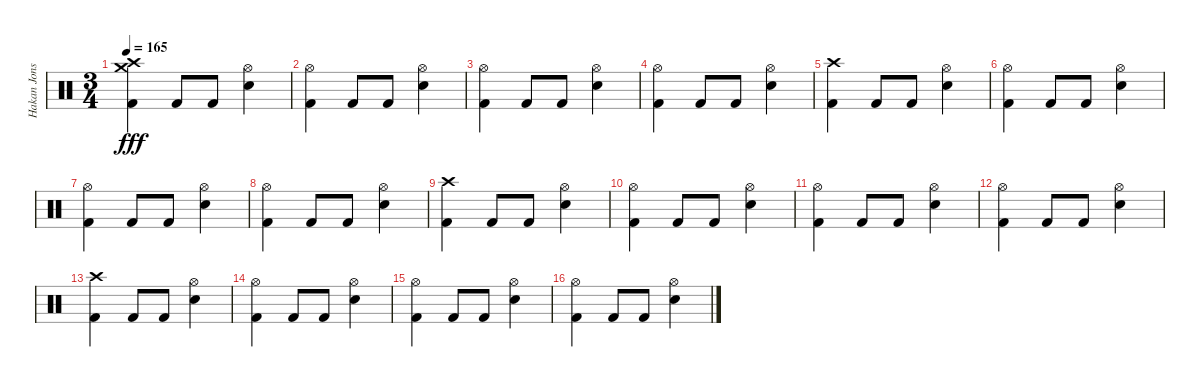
\track ("Hakan Jonsson" "Hakan Jons") {instrument percussion}
\staff {score}
\articulation defaults
\ts (3 4)
\tempo 165
\clef neutral
\ks c
("Crash high (hit)" "Crash medium (hit)" "Kick (hit) 2").4{dy fff} "Kick (hit) 2".8 "Kick (hit) 2".8 ("Hi-Hat (open)" "Electric Snare (hit)").4 |
("Hi-Hat (open)" "Kick (hit) 2").4 "Kick (hit) 2".8 "Kick (hit) 2".8 ("Hi-Hat (open)" "Electric Snare (hit)").4 |
("Hi-Hat (open)" "Kick (hit) 2").4 "Kick (hit) 2".8 "Kick (hit) 2".8 ("Hi-Hat (open)" "Electric Snare (hit)").4 |
("Hi-Hat (open)" "Kick (hit) 2").4 "Kick (hit) 2".8 "Kick (hit) 2".8 ("Hi-Hat (open)" "Electric Snare (hit)").4 |
("Crash high (hit)" "Kick (hit) 2").4 "Kick (hit) 2".8 "Kick (hit) 2".8 ("Hi-Hat (open)" "Electric Snare (hit)").4 |
("Hi-Hat (open)" "Kick (hit) 2").4 "Kick (hit) 2".8 "Kick (hit) 2".8 ("Hi-Hat (open)" "Electric Snare (hit)").4 |
("Hi-Hat (open)" "Kick (hit) 2").4 "Kick (hit) 2".8 "Kick (hit) 2".8 ("Hi-Hat (open)" "Electric Snare (hit)").4 |
("Hi-Hat (open)" "Kick (hit) 2").4 "Kick (hit) 2".8 "Kick (hit) 2".8 ("Hi-Hat (open)" "Electric Snare (hit)").4 |
("Crash high (hit)" "Kick (hit) 2").4 "Kick (hit) 2".8 "Kick (hit) 2".8 ("Hi-Hat (open)" "Electric Snare (hit)").4 |
("Hi-Hat (open)" "Kick (hit) 2").4 "Kick (hit) 2".8 "Kick (hit) 2".8 ("Hi-Hat (open)" "Electric Snare (hit)").4 |
("Hi-Hat (open)" "Kick (hit) 2").4 "Kick (hit) 2".8 "Kick (hit) 2".8 ("Hi-Hat (open)" "Electric Snare (hit)").4 |
("Hi-Hat (open)" "Kick (hit) 2").4 "Kick (hit) 2".8 "Kick (hit) 2".8 ("Hi-Hat (open)" "Electric Snare (hit)").4 |
("Crash high (hit)" "Kick (hit) 2").4 "Kick (hit) 2".8 "Kick (hit) 2".8 ("Hi-Hat (open)" "Electric Snare (hit)").4 |
("Hi-Hat (open)" "Kick (hit) 2").4 "Kick (hit) 2".8 "Kick (hit) 2".8 ("Hi-Hat (open)" "Electric Snare (hit)").4 |
("Hi-Hat (open)" "Kick (hit) 2").4 "Kick (hit) 2".8 "Kick (hit) 2".8 ("Hi-Hat (open)" "Electric Snare (hit)").4 |
("Hi-Hat (open)" "Kick (hit) 2").4 "Kick (hit) 2".8 "Kick (hit) 2".8 ("Hi-Hat (open)" "Electric Snare (hit)").4
